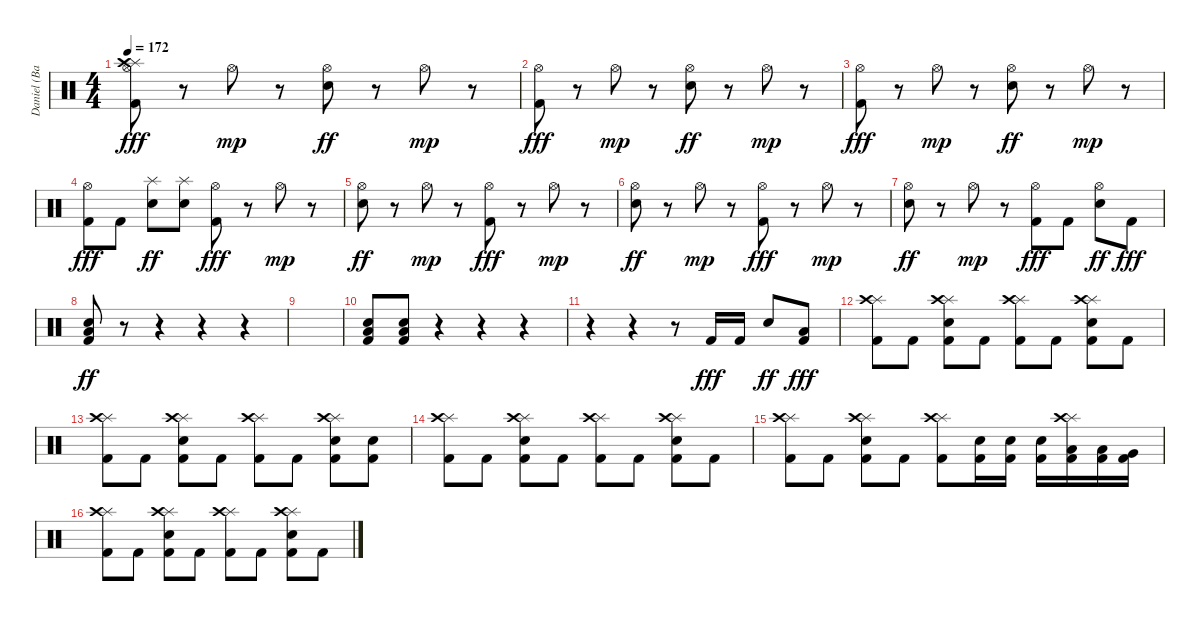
\track ("Daniel (Bateria)" "Daniel (Ba") {instrument percussion}
\staff {score}
\articulation defaults
\ts (4 4)
\tempo 172
\clef neutral
\ks c
("Splash (hit)" "Hi-Hat (open)" "Crash high (hit)" "Kick (hit) 2").8{dy fff} r.8 "Hi-Hat (open)".8{dy mp} r.8 ("Hi-Hat (open)" "Electric Snare (hit)").8{dy ff} r.8 "Hi-Hat (open)".8{dy mp} r.8 |
("Hi-Hat (open)" "Kick (hit) 2").8{dy fff} r.8 "Hi-Hat (open)".8{dy mp} r.8 ("Hi-Hat (open)" "Electric Snare (hit)").8{dy ff} r.8 "Hi-Hat (open)".8{dy mp} r.8 |
("Hi-Hat (open)" "Kick (hit) 2").8{dy fff} r.8 "Hi-Hat (open)".8{dy mp} r.8 ("Hi-Hat (open)" "Electric Snare (hit)").8{dy ff} r.8 "Hi-Hat (open)".8{dy mp} r.8 |
("Hi-Hat (open)" "Kick (hit) 2").8{dy fff} "Kick (hit) 2".8 ("Splash (hit)" "Electric Snare (hit)").8{dy ff} ("Splash (hit)" "Electric Snare (hit)").8 ("Hi-Hat (open)" "Kick (hit) 2").8{dy fff} r.8 "Hi-Hat (open)".8{dy mp} r.8 |
("Hi-Hat (open)" "Electric Snare (hit)").8{dy ff} r.8 "Hi-Hat (open)".8{dy mp} r.8 ("Hi-Hat (open)" "Kick (hit) 2").8{dy fff} r.8 "Hi-Hat (open)".8{dy mp} r.8 |
("Hi-Hat (open)" "Electric Snare (hit)").8{dy ff} r.8 "Hi-Hat (open)".8{dy mp} r.8 ("Hi-Hat (open)" "Kick (hit) 2").8{dy fff} r.8 "Hi-Hat (open)".8{dy mp} r.8 |
("Hi-Hat (open)" "Electric Snare (hit)").8{dy ff} r.8 "Hi-Hat (open)".8{dy mp} r.8 ("Hi-Hat (open)" "Kick (hit) 2").8{dy fff} "Kick (hit) 2".8 ("Hi-Hat (open)" "Electric Snare (hit)").8{dy ff} "Kick (hit) 2".8{dy fff} |
("Low Floor Tom (hit)" "Electric Snare (hit)" "Kick (hit) 2").8{dy ff} r.8 r.4 r.4 r.4 |
|
("Low Floor Tom (hit)" "Electric Snare (hit)" "Kick (hit) 2").8 ("Low Floor Tom (hit)" "Electric Snare (hit)" "Kick (hit) 2").8 r.4 r.4 r.4 |
r.4 r.4 r.8 "Kick (hit) 2".16{dy fff} "Kick (hit) 2".16 "Electric Snare (hit)".8{dy ff} ("Low Tom (hit)" "Kick (hit) 2").8{dy fff} |
("Splash (hit)" "Crash high (hit)" "Kick (hit) 2").8 "Kick (hit) 2".8 ("Splash (hit)" "Crash high (hit)" "Electric Snare (hit)" "Kick (hit) 2").8 "Kick (hit) 2".8 ("Splash (hit)" "Crash high (hit)" "Kick (hit) 2").8 "Kick (hit) 2".8 ("Splash (hit)" "Crash high (hit)" "Electric Snare (hit)" "Kick (hit) 2").8 "Kick (hit) 2".8 |
("Splash (hit)" "Crash high (hit)" "Kick (hit) 2").8 "Kick (hit) 2".8 ("Splash (hit)" "Crash high (hit)" "Electric Snare (hit)" "Kick (hit) 2").8 "Kick (hit) 2".8 ("Splash (hit)" "Crash high (hit)" "Kick (hit) 2").8 "Kick (hit) 2".8 ("Splash (hit)" "Crash high (hit)" "Electric Snare (hit)" "Kick (hit) 2").8 ("Electric Snare (hit)" "Kick (hit) 2").8 |
("Splash (hit)" "Crash high (hit)" "Kick (hit) 2").8 "Kick (hit) 2".8 ("Splash (hit)" "Crash high (hit)" "Electric Snare (hit)" "Kick (hit) 2").8 "Kick (hit) 2".8 ("Splash (hit)" "Crash high (hit)" "Kick (hit) 2").8 "Kick (hit) 2".8 ("Splash (hit)" "Crash high (hit)" "Electric Snare (hit)" "Kick (hit) 2").8 "Kick (hit) 2".8 |
("Splash (hit)" "Crash high (hit)" "Kick (hit) 2").8 "Kick (hit) 2".8 ("Splash (hit)" "Crash high (hit)" "Electric Snare (hit)" "Kick (hit) 2").8 "Kick (hit) 2".8 ("Splash (hit)" "Crash high (hit)" "Kick (hit) 2").8 ("Electric Snare (hit)" "Kick (hit) 2").16 ("Electric Snare (hit)" "Kick (hit) 2").16 ("Electric Snare (hit)" "Kick (hit) 2").16 ("Splash (hit)" "Crash high (hit)" "Low Tom (hit)" "Kick (hit) 2").16 ("Low Tom (hit)" "Kick (hit) 2").16 ("Very Low Tom (hit)" "Kick (hit) 2").16 |
("Splash (hit)" "Crash high (hit)" "Kick (hit) 2").8 "Kick (hit) 2".8 ("Splash (hit)" "Crash high (hit)" "Electric Snare (hit)" "Kick (hit) 2").8 "Kick (hit) 2".8 ("Splash (hit)" "Crash high (hit)" "Kick (hit) 2").8 "Kick (hit) 2".8 ("Splash (hit)" "Crash high (hit)" "Electric Snare (hit)" "Kick (hit) 2").8 "Kick (hit) 2".8
